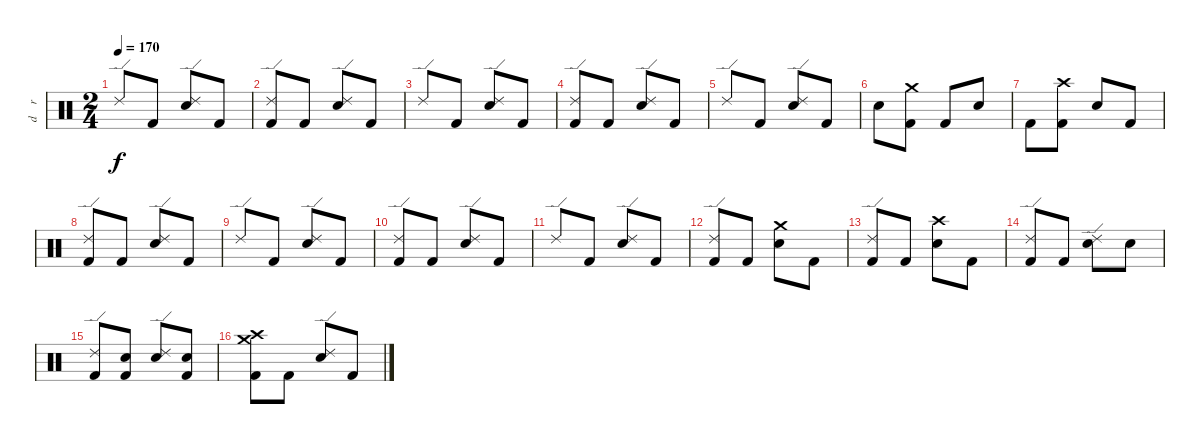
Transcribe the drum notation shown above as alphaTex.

\track ("d    r     u     m    s" "d    r    ") {instrument percussion}
\staff {score}
\articulation defaults
\ts (2 4)
\tempo 170
\clef neutral
\ks c "Ride (edge) 2".8{dy f} "Kick (hit) 2".8
("Ride (edge) 2" "Electric Snare (hit)").8 "Kick (hit) 2".8 |
("Ride (edge) 2" "Kick (hit) 2").8 "Kick (hit) 2".8 ("Ride (edge) 2" "Electric Snare (hit)").8 "Kick (hit) 2".8 |
"Ride (edge) 2".8 "Kick (hit) 2".8 ("Ride (edge) 2" "Electric Snare (hit)").8 "Kick (hit) 2".8 |
("Ride (edge) 2" "Kick (hit) 2").8 "Kick (hit) 2".8 ("Ride (edge) 2" "Electric Snare (hit)").8 "Kick (hit) 2".8 |
"Ride (edge) 2".8 "Kick (hit) 2".8 ("Ride (edge) 2" "Electric Snare (hit)").8 "Kick (hit) 2".8 |
"Electric Snare (hit)".8 ("Crash medium (hit)" "Kick (hit) 2").8 "Kick (hit) 2".8 "Electric Snare (hit)".8 |
"Kick (hit) 2".8 ("Crash high (hit)" "Kick (hit) 2").8 "Electric Snare (hit)".8 "Kick (hit) 2".8 |
("Ride (edge) 2" "Kick (hit) 2").8 "Kick (hit) 2".8 ("Ride (edge) 2" "Electric Snare (hit)").8 "Kick (hit) 2".8 |
"Ride (edge) 2".8 "Kick (hit) 2".8 ("Ride (edge) 2" "Electric Snare (hit)").8 "Kick (hit) 2".8 |
("Ride (edge) 2" "Kick (hit) 2").8 "Kick (hit) 2".8 ("Ride (edge) 2" "Electric Snare (hit)").8 "Kick (hit) 2".8 |
"Ride (edge) 2".8 "Kick (hit) 2".8 ("Ride (edge) 2" "Electric Snare (hit)").8 "Kick (hit) 2".8 |
("Ride (edge) 2" "Kick (hit) 2").8 "Kick (hit) 2".8 ("Crash medium (hit)" "Electric Snare (hit)").8 "Kick (hit) 2".8 |
("Ride (edge) 2" "Kick (hit) 2").8 "Kick (hit) 2".8 ("Crash high (hit)" "Electric Snare (hit)").8 "Kick (hit) 2".8 |
("Ride (edge) 2" "Kick (hit) 2").8 "Kick (hit) 2".8 ("Ride (edge) 2" "Electric Snare (hit)").8 "Electric Snare (hit)".8 |
("Ride (edge) 2" "Kick (hit) 2").8 ("Electric Snare (hit)" "Kick (hit) 2").8 ("Ride (edge) 2" "Electric Snare (hit)").8 ("Electric Snare (hit)" "Kick (hit) 2").8 |
("Crash high (hit)" "Crash medium (hit)" "Kick (hit) 2").8 "Kick (hit) 2".8 ("Ride (edge) 2" "Electric Snare (hit)").8 "Kick (hit) 2".8
